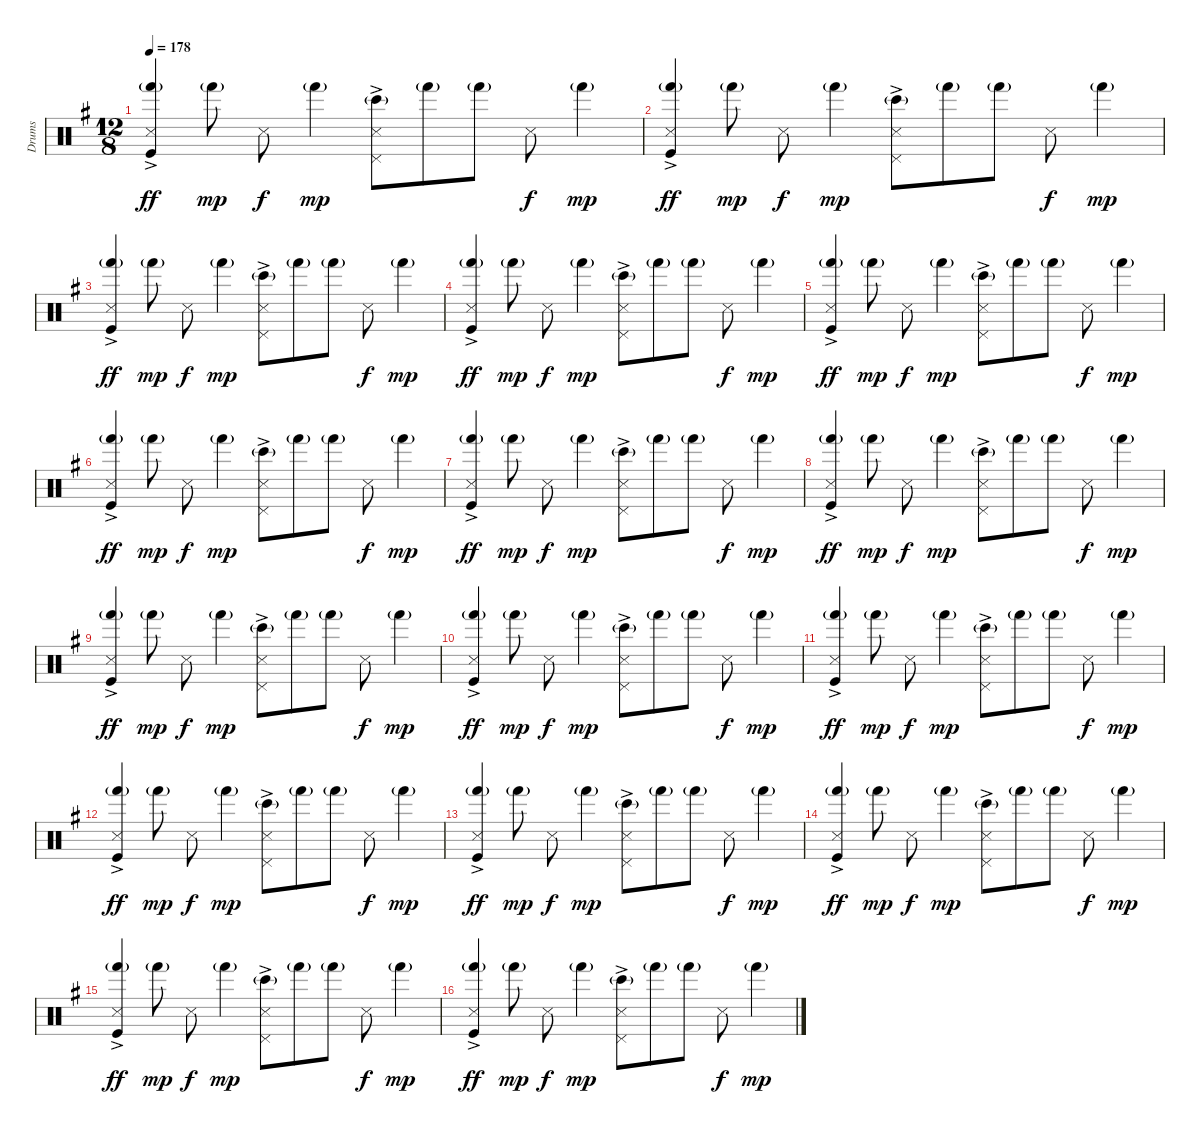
\track ("Drums" "Drums") {instrument percussion}
\staff {score}
\articulation defaults
\ts (12 8)
\tempo 178
\clef neutral
\ks g
("Snare (side stick) 3" "Hand (hit)"{g} "Kick (hit)"{ac}).4{dy ff} "Hand (hit)"{g}.8{dy mp} "Snare (side stick) 3".8{dy f} "Hand (hit)"{g}.4{dy mp} ("Pedal Hi-Hat (hit)"{ac} "Snare (side stick) 3" "Bongo High (hit)"{g}).8 "Hand (hit)"{g}.8 "Hand (hit)"{g}.8 "Snare (side stick) 3".8{dy f} "Hand (hit)"{g}.4{dy mp} |
("Snare (side stick) 3" "Hand (hit)"{g} "Kick (hit)"{ac}).4{dy ff} "Hand (hit)"{g}.8{dy mp} "Snare (side stick) 3".8{dy f} "Hand (hit)"{g}.4{dy mp} ("Pedal Hi-Hat (hit)"{ac} "Snare (side stick) 3" "Bongo High (hit)"{g}).8 "Hand (hit)"{g}.8 "Hand (hit)"{g}.8 "Snare (side stick) 3".8{dy f} "Hand (hit)"{g}.4{dy mp} |
("Snare (side stick) 3" "Hand (hit)"{g} "Kick (hit)"{ac}).4{dy ff} "Hand (hit)"{g}.8{dy mp} "Snare (side stick) 3".8{dy f} "Hand (hit)"{g}.4{dy mp} ("Pedal Hi-Hat (hit)"{ac} "Snare (side stick) 3" "Bongo High (hit)"{g}).8 "Hand (hit)"{g}.8 "Hand (hit)"{g}.8 "Snare (side stick) 3".8{dy f} "Hand (hit)"{g}.4{dy mp} |
("Snare (side stick) 3" "Hand (hit)"{g} "Kick (hit)"{ac}).4{dy ff} "Hand (hit)"{g}.8{dy mp} "Snare (side stick) 3".8{dy f} "Hand (hit)"{g}.4{dy mp} ("Pedal Hi-Hat (hit)"{ac} "Snare (side stick) 3" "Bongo High (hit)"{g}).8 "Hand (hit)"{g}.8 "Hand (hit)"{g}.8 "Snare (side stick) 3".8{dy f} "Hand (hit)"{g}.4{dy mp} |
("Snare (side stick) 3" "Hand (hit)"{g} "Kick (hit)"{ac}).4{dy ff} "Hand (hit)"{g}.8{dy mp} "Snare (side stick) 3".8{dy f} "Hand (hit)"{g}.4{dy mp} ("Pedal Hi-Hat (hit)"{ac} "Snare (side stick) 3" "Bongo High (hit)"{g}).8 "Hand (hit)"{g}.8 "Hand (hit)"{g}.8 "Snare (side stick) 3".8{dy f} "Hand (hit)"{g}.4{dy mp} |
("Snare (side stick) 3" "Hand (hit)"{g} "Kick (hit)"{ac}).4{dy ff} "Hand (hit)"{g}.8{dy mp} "Snare (side stick) 3".8{dy f} "Hand (hit)"{g}.4{dy mp} ("Pedal Hi-Hat (hit)"{ac} "Snare (side stick) 3" "Bongo High (hit)"{g}).8 "Hand (hit)"{g}.8 "Hand (hit)"{g}.8 "Snare (side stick) 3".8{dy f} "Hand (hit)"{g}.4{dy mp} |
("Snare (side stick) 3" "Hand (hit)"{g} "Kick (hit)"{ac}).4{dy ff} "Hand (hit)"{g}.8{dy mp} "Snare (side stick) 3".8{dy f} "Hand (hit)"{g}.4{dy mp} ("Pedal Hi-Hat (hit)"{ac} "Snare (side stick) 3" "Bongo High (hit)"{g}).8 "Hand (hit)"{g}.8 "Hand (hit)"{g}.8 "Snare (side stick) 3".8{dy f} "Hand (hit)"{g}.4{dy mp} |
("Snare (side stick) 3" "Hand (hit)"{g} "Kick (hit)"{ac}).4{dy ff} "Hand (hit)"{g}.8{dy mp} "Snare (side stick) 3".8{dy f} "Hand (hit)"{g}.4{dy mp} ("Pedal Hi-Hat (hit)"{ac} "Snare (side stick) 3" "Bongo High (hit)"{g}).8 "Hand (hit)"{g}.8 "Hand (hit)"{g}.8 "Snare (side stick) 3".8{dy f} "Hand (hit)"{g}.4{dy mp} |
("Snare (side stick) 3" "Hand (hit)"{g} "Kick (hit)"{ac}).4{dy ff} "Hand (hit)"{g}.8{dy mp} "Snare (side stick) 3".8{dy f} "Hand (hit)"{g}.4{dy mp} ("Pedal Hi-Hat (hit)"{ac} "Snare (side stick) 3" "Bongo High (hit)"{g}).8 "Hand (hit)"{g}.8 "Hand (hit)"{g}.8 "Snare (side stick) 3".8{dy f} "Hand (hit)"{g}.4{dy mp} |
("Snare (side stick) 3" "Hand (hit)"{g} "Kick (hit)"{ac}).4{dy ff} "Hand (hit)"{g}.8{dy mp} "Snare (side stick) 3".8{dy f} "Hand (hit)"{g}.4{dy mp} ("Pedal Hi-Hat (hit)"{ac} "Snare (side stick) 3" "Bongo High (hit)"{g}).8 "Hand (hit)"{g}.8 "Hand (hit)"{g}.8 "Snare (side stick) 3".8{dy f} "Hand (hit)"{g}.4{dy mp} |
("Snare (side stick) 3" "Hand (hit)"{g} "Kick (hit)"{ac}).4{dy ff} "Hand (hit)"{g}.8{dy mp} "Snare (side stick) 3".8{dy f} "Hand (hit)"{g}.4{dy mp} ("Pedal Hi-Hat (hit)"{ac} "Snare (side stick) 3" "Bongo High (hit)"{g}).8 "Hand (hit)"{g}.8 "Hand (hit)"{g}.8 "Snare (side stick) 3".8{dy f} "Hand (hit)"{g}.4{dy mp} |
("Snare (side stick) 3" "Hand (hit)"{g} "Kick (hit)"{ac}).4{dy ff} "Hand (hit)"{g}.8{dy mp} "Snare (side stick) 3".8{dy f} "Hand (hit)"{g}.4{dy mp} ("Pedal Hi-Hat (hit)"{ac} "Snare (side stick) 3" "Bongo High (hit)"{g}).8 "Hand (hit)"{g}.8 "Hand (hit)"{g}.8 "Snare (side stick) 3".8{dy f} "Hand (hit)"{g}.4{dy mp} |
("Snare (side stick) 3" "Hand (hit)"{g} "Kick (hit)"{ac}).4{dy ff} "Hand (hit)"{g}.8{dy mp} "Snare (side stick) 3".8{dy f} "Hand (hit)"{g}.4{dy mp} ("Pedal Hi-Hat (hit)"{ac} "Snare (side stick) 3" "Bongo High (hit)"{g}).8 "Hand (hit)"{g}.8 "Hand (hit)"{g}.8 "Snare (side stick) 3".8{dy f} "Hand (hit)"{g}.4{dy mp} |
("Snare (side stick) 3" "Hand (hit)"{g} "Kick (hit)"{ac}).4{dy ff} "Hand (hit)"{g}.8{dy mp} "Snare (side stick) 3".8{dy f} "Hand (hit)"{g}.4{dy mp} ("Pedal Hi-Hat (hit)"{ac} "Snare (side stick) 3" "Bongo High (hit)"{g}).8 "Hand (hit)"{g}.8 "Hand (hit)"{g}.8 "Snare (side stick) 3".8{dy f} "Hand (hit)"{g}.4{dy mp} |
("Snare (side stick) 3" "Hand (hit)"{g} "Kick (hit)"{ac}).4{dy ff} "Hand (hit)"{g}.8{dy mp} "Snare (side stick) 3".8{dy f} "Hand (hit)"{g}.4{dy mp} ("Pedal Hi-Hat (hit)"{ac} "Snare (side stick) 3" "Bongo High (hit)"{g}).8 "Hand (hit)"{g}.8 "Hand (hit)"{g}.8 "Snare (side stick) 3".8{dy f} "Hand (hit)"{g}.4{dy mp} |
("Snare (side stick) 3" "Hand (hit)"{g} "Kick (hit)"{ac}).4{dy ff} "Hand (hit)"{g}.8{dy mp} "Snare (side stick) 3".8{dy f} "Hand (hit)"{g}.4{dy mp} ("Pedal Hi-Hat (hit)"{ac} "Snare (side stick) 3" "Bongo High (hit)"{g}).8 "Hand (hit)"{g}.8 "Hand (hit)"{g}.8 "Snare (side stick) 3".8{dy f} "Hand (hit)"{g}.4{dy mp}
